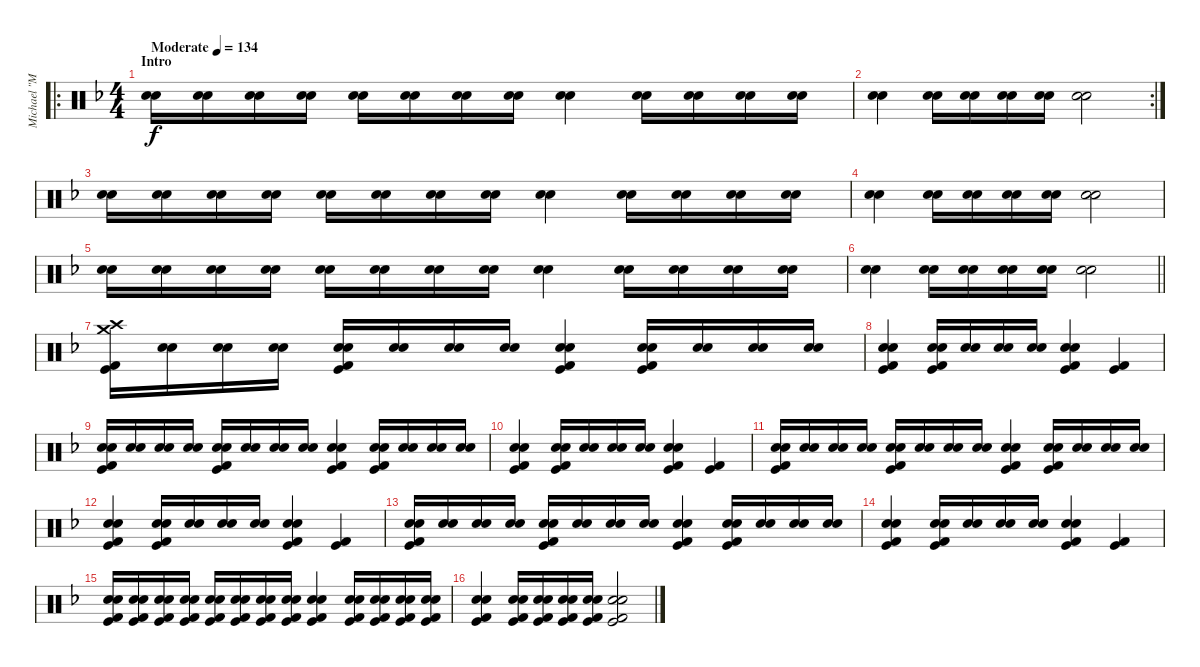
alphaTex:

\track ("Michael \"Moose\" Thomas" "Michael \"M") {instrument percussion}
\staff {score}
\articulation defaults
\ro
\ts (4 4)
\section ("" "Intro")
\tempo (134 "Moderate")
\clef neutral
\ks f
("Electric Snare (hit)" "Electric Snare (hit)").16{dy f} ("Electric Snare (hit)" "Electric Snare (hit)").16 ("Electric Snare (hit)" "Electric Snare (hit)").16 ("Electric Snare (hit)" "Electric Snare (hit)").16 ("Electric Snare (hit)" "Electric Snare (hit)").16 ("Electric Snare (hit)" "Electric Snare (hit)").16 ("Electric Snare (hit)" "Electric Snare (hit)").16 ("Electric Snare (hit)" "Electric Snare (hit)").16 ("Electric Snare (hit)" "Electric Snare (hit)").4 ("Electric Snare (hit)" "Electric Snare (hit)").16 ("Electric Snare (hit)" "Electric Snare (hit)").16 ("Electric Snare (hit)" "Electric Snare (hit)").16 ("Electric Snare (hit)" "Electric Snare (hit)").16 |
\rc 2
("Electric Snare (hit)" "Electric Snare (hit)").4 ("Electric Snare (hit)" "Electric Snare (hit)").16 ("Electric Snare (hit)" "Electric Snare (hit)").16 ("Electric Snare (hit)" "Electric Snare (hit)").16 ("Electric Snare (hit)" "Electric Snare (hit)").16 ("Electric Snare (hit)" "Electric Snare (hit)").2 |
("Electric Snare (hit)" "Electric Snare (hit)").16 ("Electric Snare (hit)" "Electric Snare (hit)").16 ("Electric Snare (hit)" "Electric Snare (hit)").16 ("Electric Snare (hit)" "Electric Snare (hit)").16 ("Electric Snare (hit)" "Electric Snare (hit)").16 ("Electric Snare (hit)" "Electric Snare (hit)").16 ("Electric Snare (hit)" "Electric Snare (hit)").16 ("Electric Snare (hit)" "Electric Snare (hit)").16 ("Electric Snare (hit)" "Electric Snare (hit)").4 ("Electric Snare (hit)" "Electric Snare (hit)").16 ("Electric Snare (hit)" "Electric Snare (hit)").16 ("Electric Snare (hit)" "Electric Snare (hit)").16 ("Electric Snare (hit)" "Electric Snare (hit)").16 |
("Electric Snare (hit)" "Electric Snare (hit)").4 ("Electric Snare (hit)" "Electric Snare (hit)").16 ("Electric Snare (hit)" "Electric Snare (hit)").16 ("Electric Snare (hit)" "Electric Snare (hit)").16 ("Electric Snare (hit)" "Electric Snare (hit)").16 ("Electric Snare (hit)" "Electric Snare (hit)").2 |
("Electric Snare (hit)" "Electric Snare (hit)").16 ("Electric Snare (hit)" "Electric Snare (hit)").16 ("Electric Snare (hit)" "Electric Snare (hit)").16 ("Electric Snare (hit)" "Electric Snare (hit)").16 ("Electric Snare (hit)" "Electric Snare (hit)").16 ("Electric Snare (hit)" "Electric Snare (hit)").16 ("Electric Snare (hit)" "Electric Snare (hit)").16 ("Electric Snare (hit)" "Electric Snare (hit)").16 ("Electric Snare (hit)" "Electric Snare (hit)").4 ("Electric Snare (hit)" "Electric Snare (hit)").16 ("Electric Snare (hit)" "Electric Snare (hit)").16 ("Electric Snare (hit)" "Electric Snare (hit)").16 ("Electric Snare (hit)" "Electric Snare (hit)").16 |
\barLineRight lightlight
("Electric Snare (hit)" "Electric Snare (hit)").4 ("Electric Snare (hit)" "Electric Snare (hit)").16 ("Electric Snare (hit)" "Electric Snare (hit)").16 ("Electric Snare (hit)" "Electric Snare (hit)").16 ("Electric Snare (hit)" "Electric Snare (hit)").16 ("Electric Snare (hit)" "Electric Snare (hit)").2 |
("Crash high (hit)" "Crash medium (hit)" "Kick (hit)" "Kick (hit) 2").16 ("Electric Snare (hit)" "Electric Snare (hit)").16 ("Electric Snare (hit)" "Electric Snare (hit)").16 ("Electric Snare (hit)" "Electric Snare (hit)").16 ("Electric Snare (hit)" "Electric Snare (hit)" "Kick (hit)" "Kick (hit) 2").16 ("Electric Snare (hit)" "Electric Snare (hit)").16 ("Electric Snare (hit)" "Electric Snare (hit)").16 ("Electric Snare (hit)" "Electric Snare (hit)").16 ("Electric Snare (hit)" "Electric Snare (hit)" "Kick (hit)" "Kick (hit) 2").4 ("Electric Snare (hit)" "Electric Snare (hit)" "Kick (hit)" "Kick (hit) 2").16 ("Electric Snare (hit)" "Electric Snare (hit)").16 ("Electric Snare (hit)" "Electric Snare (hit)").16 ("Electric Snare (hit)" "Electric Snare (hit)").16 |
("Electric Snare (hit)" "Electric Snare (hit)" "Kick (hit)" "Kick (hit) 2").4 ("Electric Snare (hit)" "Electric Snare (hit)" "Kick (hit)" "Kick (hit) 2").16 ("Electric Snare (hit)" "Electric Snare (hit)").16 ("Electric Snare (hit)" "Electric Snare (hit)").16 ("Electric Snare (hit)" "Electric Snare (hit)").16 ("Electric Snare (hit)" "Electric Snare (hit)" "Kick (hit)" "Kick (hit) 2").4 ("Kick (hit)" "Kick (hit) 2").4 |
("Electric Snare (hit)" "Electric Snare (hit)" "Kick (hit)" "Kick (hit) 2").16 ("Electric Snare (hit)" "Electric Snare (hit)").16 ("Electric Snare (hit)" "Electric Snare (hit)").16 ("Electric Snare (hit)" "Electric Snare (hit)").16 ("Electric Snare (hit)" "Electric Snare (hit)" "Kick (hit)" "Kick (hit) 2").16 ("Electric Snare (hit)" "Electric Snare (hit)").16 ("Electric Snare (hit)" "Electric Snare (hit)").16 ("Electric Snare (hit)" "Electric Snare (hit)").16 ("Electric Snare (hit)" "Electric Snare (hit)" "Kick (hit)" "Kick (hit) 2").4 ("Electric Snare (hit)" "Electric Snare (hit)" "Kick (hit)" "Kick (hit) 2").16 ("Electric Snare (hit)" "Electric Snare (hit)").16 ("Electric Snare (hit)" "Electric Snare (hit)").16 ("Electric Snare (hit)" "Electric Snare (hit)").16 |
("Electric Snare (hit)" "Electric Snare (hit)" "Kick (hit)" "Kick (hit) 2").4 ("Electric Snare (hit)" "Electric Snare (hit)" "Kick (hit)" "Kick (hit) 2").16 ("Electric Snare (hit)" "Electric Snare (hit)").16 ("Electric Snare (hit)" "Electric Snare (hit)").16 ("Electric Snare (hit)" "Electric Snare (hit)").16 ("Electric Snare (hit)" "Electric Snare (hit)" "Kick (hit)" "Kick (hit) 2").4 ("Kick (hit)" "Kick (hit) 2").4 |
("Electric Snare (hit)" "Electric Snare (hit)" "Kick (hit)" "Kick (hit) 2").16 ("Electric Snare (hit)" "Electric Snare (hit)").16 ("Electric Snare (hit)" "Electric Snare (hit)").16 ("Electric Snare (hit)" "Electric Snare (hit)").16 ("Electric Snare (hit)" "Electric Snare (hit)" "Kick (hit)" "Kick (hit) 2").16 ("Electric Snare (hit)" "Electric Snare (hit)").16 ("Electric Snare (hit)" "Electric Snare (hit)").16 ("Electric Snare (hit)" "Electric Snare (hit)").16 ("Electric Snare (hit)" "Electric Snare (hit)" "Kick (hit)" "Kick (hit) 2").4 ("Electric Snare (hit)" "Electric Snare (hit)" "Kick (hit)" "Kick (hit) 2").16 ("Electric Snare (hit)" "Electric Snare (hit)").16 ("Electric Snare (hit)" "Electric Snare (hit)").16 ("Electric Snare (hit)" "Electric Snare (hit)").16 |
("Electric Snare (hit)" "Electric Snare (hit)" "Kick (hit)" "Kick (hit) 2").4 ("Electric Snare (hit)" "Electric Snare (hit)" "Kick (hit)" "Kick (hit) 2").16 ("Electric Snare (hit)" "Electric Snare (hit)").16 ("Electric Snare (hit)" "Electric Snare (hit)").16 ("Electric Snare (hit)" "Electric Snare (hit)").16 ("Electric Snare (hit)" "Electric Snare (hit)" "Kick (hit)" "Kick (hit) 2").4 ("Kick (hit)" "Kick (hit) 2").4 |
("Electric Snare (hit)" "Electric Snare (hit)" "Kick (hit)" "Kick (hit) 2").16 ("Electric Snare (hit)" "Electric Snare (hit)").16 ("Electric Snare (hit)" "Electric Snare (hit)").16 ("Electric Snare (hit)" "Electric Snare (hit)").16 ("Electric Snare (hit)" "Electric Snare (hit)" "Kick (hit)" "Kick (hit) 2").16 ("Electric Snare (hit)" "Electric Snare (hit)").16 ("Electric Snare (hit)" "Electric Snare (hit)").16 ("Electric Snare (hit)" "Electric Snare (hit)").16 ("Electric Snare (hit)" "Electric Snare (hit)" "Kick (hit)" "Kick (hit) 2").4 ("Electric Snare (hit)" "Electric Snare (hit)" "Kick (hit)" "Kick (hit) 2").16 ("Electric Snare (hit)" "Electric Snare (hit)").16 ("Electric Snare (hit)" "Electric Snare (hit)").16 ("Electric Snare (hit)" "Electric Snare (hit)").16 |
("Electric Snare (hit)" "Electric Snare (hit)" "Kick (hit)" "Kick (hit) 2").4 ("Electric Snare (hit)" "Electric Snare (hit)" "Kick (hit)" "Kick (hit) 2").16 ("Electric Snare (hit)" "Electric Snare (hit)").16 ("Electric Snare (hit)" "Electric Snare (hit)").16 ("Electric Snare (hit)" "Electric Snare (hit)").16 ("Electric Snare (hit)" "Electric Snare (hit)" "Kick (hit)" "Kick (hit) 2").4 ("Kick (hit)" "Kick (hit) 2").4 |
("Electric Snare (hit)" "Electric Snare (hit)" "Kick (hit)" "Kick (hit) 2").16 ("Electric Snare (hit)" "Electric Snare (hit)" "Kick (hit)" "Kick (hit) 2").16 ("Electric Snare (hit)" "Electric Snare (hit)" "Kick (hit)" "Kick (hit) 2").16 ("Electric Snare (hit)" "Electric Snare (hit)" "Kick (hit)" "Kick (hit) 2").16 ("Electric Snare (hit)" "Electric Snare (hit)" "Kick (hit)" "Kick (hit) 2").16 ("Electric Snare (hit)" "Electric Snare (hit)" "Kick (hit)" "Kick (hit) 2").16 ("Electric Snare (hit)" "Electric Snare (hit)" "Kick (hit)" "Kick (hit) 2").16 ("Electric Snare (hit)" "Electric Snare (hit)" "Kick (hit)" "Kick (hit) 2").16 ("Electric Snare (hit)" "Electric Snare (hit)" "Kick (hit)" "Kick (hit) 2").4 ("Electric Snare (hit)" "Electric Snare (hit)" "Kick (hit)" "Kick (hit) 2").16 ("Electric Snare (hit)" "Electric Snare (hit)" "Kick (hit)" "Kick (hit) 2").16 ("Electric Snare (hit)" "Electric Snare (hit)" "Kick (hit)" "Kick (hit) 2").16 ("Electric Snare (hit)" "Electric Snare (hit)" "Kick (hit)" "Kick (hit) 2").16 |
("Electric Snare (hit)" "Electric Snare (hit)" "Kick (hit)" "Kick (hit) 2").4 ("Electric Snare (hit)" "Electric Snare (hit)" "Kick (hit)" "Kick (hit) 2").16 ("Electric Snare (hit)" "Electric Snare (hit)" "Kick (hit)" "Kick (hit) 2").16 ("Electric Snare (hit)" "Electric Snare (hit)" "Kick (hit)" "Kick (hit) 2").16 ("Electric Snare (hit)" "Electric Snare (hit)" "Kick (hit)" "Kick (hit) 2").16 ("Electric Snare (hit)" "Electric Snare (hit)" "Kick (hit)" "Kick (hit) 2").2
